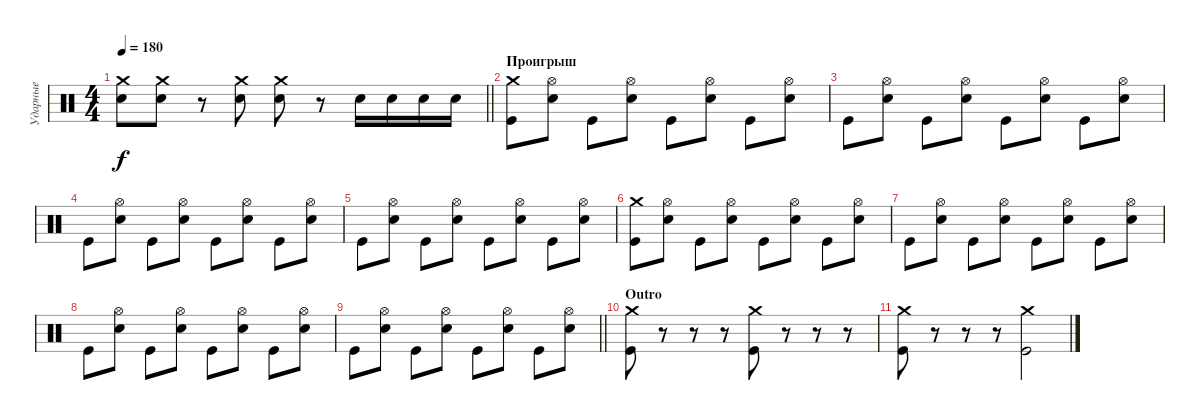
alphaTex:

\track ("Ударные" "Ударные") {instrument percussion}
\staff {score}
\articulation defaults
\ts (4 4)
\tempo 180
\clef neutral
\barLineRight lightlight
\ks c
("Crash medium (hit)" "Electric Snare (hit)").8{dy f} ("Crash medium (hit)" "Electric Snare (hit)").8 r.8 ("Crash medium (hit)" "Electric Snare (hit)").8 ("Crash medium (hit)" "Electric Snare (hit)").8 r.8 "Electric Snare (hit)".16 "Electric Snare (hit)".16 "Electric Snare (hit)".16 "Electric Snare (hit)".16 |
\section ("" "Проигрыш")
("Crash medium (hit)" "Kick (hit)").8 ("Hi-Hat (open)" "Electric Snare (hit)").8 "Kick (hit)".8 ("Hi-Hat (open)" "Electric Snare (hit)").8 "Kick (hit)".8 ("Hi-Hat (open)" "Electric Snare (hit)").8 "Kick (hit)".8 ("Hi-Hat (open)" "Electric Snare (hit)").8 |
"Kick (hit)".8 ("Hi-Hat (open)" "Electric Snare (hit)").8 "Kick (hit)".8 ("Hi-Hat (open)" "Electric Snare (hit)").8 "Kick (hit)".8 ("Hi-Hat (open)" "Electric Snare (hit)").8 "Kick (hit)".8 ("Hi-Hat (open)" "Electric Snare (hit)").8 |
"Kick (hit)".8 ("Hi-Hat (open)" "Electric Snare (hit)").8 "Kick (hit)".8 ("Hi-Hat (open)" "Electric Snare (hit)").8 "Kick (hit)".8 ("Hi-Hat (open)" "Electric Snare (hit)").8 "Kick (hit)".8 ("Hi-Hat (open)" "Electric Snare (hit)").8 |
"Kick (hit)".8 ("Hi-Hat (open)" "Electric Snare (hit)").8 "Kick (hit)".8 ("Hi-Hat (open)" "Electric Snare (hit)").8 "Kick (hit)".8 ("Hi-Hat (open)" "Electric Snare (hit)").8 "Kick (hit)".8 ("Hi-Hat (open)" "Electric Snare (hit)").8 |
("Crash medium (hit)" "Kick (hit)").8 ("Hi-Hat (open)" "Electric Snare (hit)").8 "Kick (hit)".8 ("Hi-Hat (open)" "Electric Snare (hit)").8 "Kick (hit)".8 ("Hi-Hat (open)" "Electric Snare (hit)").8 "Kick (hit)".8 ("Hi-Hat (open)" "Electric Snare (hit)").8 |
"Kick (hit)".8 ("Hi-Hat (open)" "Electric Snare (hit)").8 "Kick (hit)".8 ("Hi-Hat (open)" "Electric Snare (hit)").8 "Kick (hit)".8 ("Hi-Hat (open)" "Electric Snare (hit)").8 "Kick (hit)".8 ("Hi-Hat (open)" "Electric Snare (hit)").8 |
"Kick (hit)".8 ("Hi-Hat (open)" "Electric Snare (hit)").8 "Kick (hit)".8 ("Hi-Hat (open)" "Electric Snare (hit)").8 "Kick (hit)".8 ("Hi-Hat (open)" "Electric Snare (hit)").8 "Kick (hit)".8 ("Hi-Hat (open)" "Electric Snare (hit)").8 |
\barLineRight lightlight "Kick (hit)".8
("Hi-Hat (open)" "Electric Snare (hit)").8 "Kick (hit)".8 ("Hi-Hat (open)" "Electric Snare (hit)").8 "Kick (hit)".8 ("Hi-Hat (open)" "Electric Snare (hit)").8 "Kick (hit)".8 ("Hi-Hat (open)" "Electric Snare (hit)").8 |
\section ("" "Outro")
("Crash medium (hit)" "Kick (hit)").8 r.8 r.8 r.8 ("Crash medium (hit)" "Kick (hit)").8 r.8 r.8 r.8 |
("Crash medium (hit)" "Kick (hit)").8 r.8 r.8 r.8 ("Crash medium (hit)" "Kick (hit)").2
